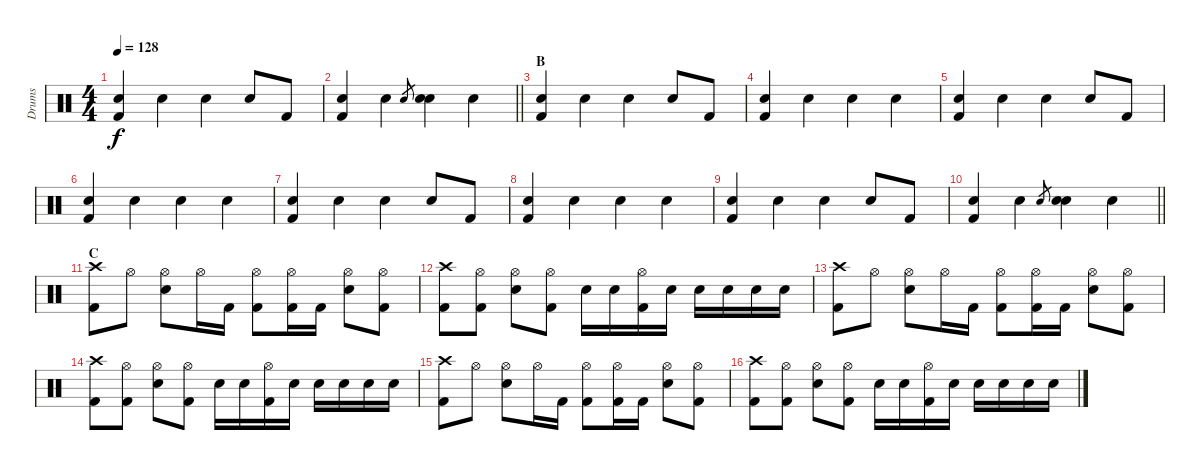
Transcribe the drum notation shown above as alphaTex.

\track ("Drums" "Drums") {instrument percussion}
\staff {score}
\articulation defaults
\ts (4 4)
\tempo 128
\clef neutral
\ks c
("Metronome (bell)" "Kick (hit) 2").4{dy f} "Metronome (bell)".4 "Metronome (bell)".4 "Metronome (bell)".8 "Kick (hit) 2".8 |
\barLineRight lightlight
("Metronome (bell)" "Kick (hit) 2").4 "Metronome (bell)".4 "Snare (hit) 2".8{gr} ("Metronome (bell)" "Snare (hit) 2").4 "Metronome (bell)".4 |
\section ("" "B")
("Metronome (bell)" "Kick (hit) 2").4 "Metronome (bell)".4 "Metronome (bell)".4 "Metronome (bell)".8 "Kick (hit) 2".8 |
("Metronome (bell)" "Kick (hit) 2").4 "Metronome (bell)".4 "Metronome (bell)".4 "Metronome (bell)".4 |
("Metronome (bell)" "Kick (hit) 2").4 "Metronome (bell)".4 "Metronome (bell)".4 "Metronome (bell)".8 "Kick (hit) 2".8 |
("Metronome (bell)" "Kick (hit) 2").4 "Metronome (bell)".4 "Metronome (bell)".4 "Metronome (bell)".4 |
("Metronome (bell)" "Kick (hit) 2").4 "Metronome (bell)".4 "Metronome (bell)".4 "Metronome (bell)".8 "Kick (hit) 2".8 |
("Metronome (bell)" "Kick (hit) 2").4 "Metronome (bell)".4 "Metronome (bell)".4 "Metronome (bell)".4 |
("Metronome (bell)" "Kick (hit) 2").4 "Metronome (bell)".4 "Metronome (bell)".4 "Metronome (bell)".8 "Kick (hit) 2".8 |
\barLineRight lightlight
("Metronome (bell)" "Kick (hit) 2").4 "Metronome (bell)".4 "Snare (hit) 2".8{gr} ("Metronome (bell)" "Snare (hit) 2").4 "Metronome (bell)".4 |
\section ("" "C")
("Crash high (hit)" "Kick (hit) 2").8 "Hi-Hat (open)".8 ("Hi-Hat (open)" "Snare (hit) 2").8 "Hi-Hat (open)".16 "Kick (hit) 2".16 ("Hi-Hat (open)" "Kick (hit) 2").8 ("Hi-Hat (open)" "Kick (hit) 2").16 "Kick (hit) 2".16 ("Hi-Hat (open)" "Snare (hit) 2").8 ("Hi-Hat (open)" "Kick (hit) 2").8 |
("Crash high (hit)" "Kick (hit) 2").8 ("Hi-Hat (open)" "Kick (hit) 2").8 ("Hi-Hat (open)" "Snare (hit) 2").8 ("Hi-Hat (open)" "Kick (hit) 2").8 "Snare (hit) 2".16 "Snare (hit) 2".16 ("Hi-Hat (open)" "Kick (hit) 2").16 "Snare (hit) 2".16 "Snare (hit) 2".16 "Snare (hit) 2".16 "Snare (hit) 2".16 "Snare (hit) 2".16 |
("Crash high (hit)" "Kick (hit) 2").8 "Hi-Hat (open)".8 ("Hi-Hat (open)" "Snare (hit) 2").8 "Hi-Hat (open)".16 "Kick (hit) 2".16 ("Hi-Hat (open)" "Kick (hit) 2").8 ("Hi-Hat (open)" "Kick (hit) 2").16 "Kick (hit) 2".16 ("Hi-Hat (open)" "Snare (hit) 2").8 ("Hi-Hat (open)" "Kick (hit) 2").8 |
("Crash high (hit)" "Kick (hit) 2").8 ("Hi-Hat (open)" "Kick (hit) 2").8 ("Hi-Hat (open)" "Snare (hit) 2").8 ("Hi-Hat (open)" "Kick (hit) 2").8 "Snare (hit) 2".16 "Snare (hit) 2".16 ("Hi-Hat (open)" "Kick (hit) 2").16 "Snare (hit) 2".16 "Snare (hit) 2".16 "Snare (hit) 2".16 "Snare (hit) 2".16 "Snare (hit) 2".16 |
("Crash high (hit)" "Kick (hit) 2").8 "Hi-Hat (open)".8 ("Hi-Hat (open)" "Snare (hit) 2").8 "Hi-Hat (open)".16 "Kick (hit) 2".16 ("Hi-Hat (open)" "Kick (hit) 2").8 ("Hi-Hat (open)" "Kick (hit) 2").16 "Kick (hit) 2".16 ("Hi-Hat (open)" "Snare (hit) 2").8 ("Hi-Hat (open)" "Kick (hit) 2").8 |
("Crash high (hit)" "Kick (hit) 2").8 ("Hi-Hat (open)" "Kick (hit) 2").8 ("Hi-Hat (open)" "Snare (hit) 2").8 ("Hi-Hat (open)" "Kick (hit) 2").8 "Snare (hit) 2".16 "Snare (hit) 2".16 ("Hi-Hat (open)" "Kick (hit) 2").16 "Snare (hit) 2".16 "Snare (hit) 2".16 "Snare (hit) 2".16 "Snare (hit) 2".16 "Snare (hit) 2".16
